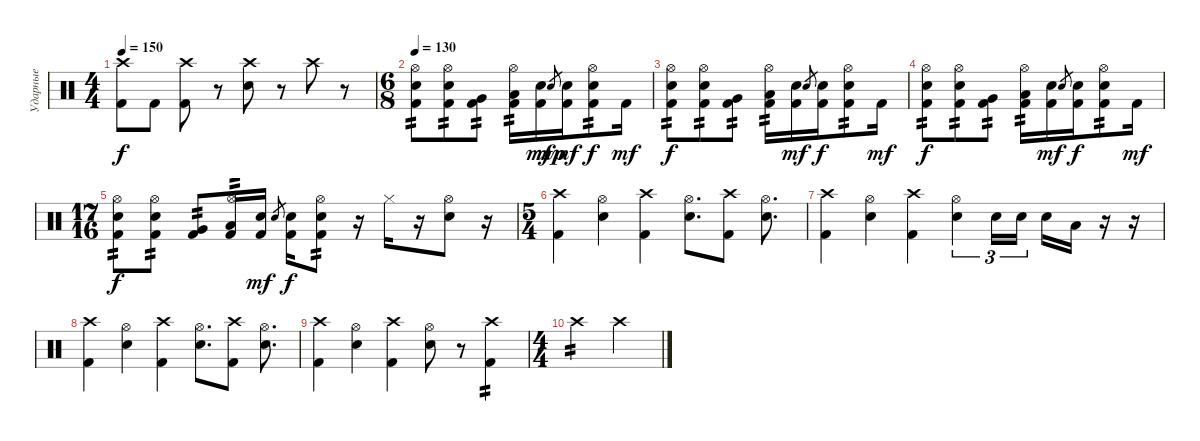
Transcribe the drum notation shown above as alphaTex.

\track ("Ударные" "Ударные") {instrument percussion}
\staff {score}
\articulation defaults
\ts (4 4)
\tempo 150
\clef neutral
\ks c
("Crash high (hit)" "Kick (hit) 2").8{dy f} "Kick (hit) 2".8 ("Crash high (hit)" "Kick (hit) 2").8 r.8 ("Crash high (hit)" "Electric Snare (hit)").8 r.8 "Crash high (hit)".8 r.8 |
\ts (6 8)
\tempo 130
("Hi-Hat (open)" "Electric Snare (hit)" "Kick (hit) 2").8{tp 2} ("Hi-Hat (open)" "Electric Snare (hit)" "Kick (hit) 2").8{tp 2} ("Very Low Tom (hit)" "Kick (hit) 2").8{tp 2} ("Hi-Hat (open)" "Low Floor Tom (hit)" "Kick (hit) 2").16{tp 2} ("Electric Snare (hit)" "Kick (hit) 2").16{dy mf} "Electric Snare (hit)".8{gr dy mp} ("Electric Snare (hit)" "Kick (hit) 2").16{dy mf} ("Hi-Hat (open)" "Electric Snare (hit)" "Kick (hit) 2").8{tp 2 dy f} "Kick (hit) 2".16{dy mf} |
("Hi-Hat (open)" "Electric Snare (hit)" "Kick (hit) 2").8{tp 2 dy f} ("Hi-Hat (open)" "Electric Snare (hit)" "Kick (hit) 2").8{tp 2} ("Very Low Tom (hit)" "Kick (hit) 2").8{tp 2} ("Hi-Hat (open)" "Low Floor Tom (hit)" "Kick (hit) 2").16{tp 2} ("Electric Snare (hit)" "Kick (hit) 2").16{dy mf} "Electric Snare (hit)".8{gr} ("Electric Snare (hit)" "Kick (hit) 2").16{dy f} ("Hi-Hat (open)" "Electric Snare (hit)" "Kick (hit) 2").8{tp 2} "Kick (hit) 2".16{dy mf} |
("Hi-Hat (open)" "Electric Snare (hit)" "Kick (hit) 2").8{tp 2 dy f} ("Hi-Hat (open)" "Electric Snare (hit)" "Kick (hit) 2").8{tp 2} ("Very Low Tom (hit)" "Kick (hit) 2").8{tp 2} ("Hi-Hat (open)" "Low Floor Tom (hit)" "Kick (hit) 2").16{tp 2} ("Electric Snare (hit)" "Kick (hit) 2").16{dy mf} "Electric Snare (hit)".8{gr} ("Electric Snare (hit)" "Kick (hit) 2").16{dy f} ("Hi-Hat (open)" "Electric Snare (hit)" "Kick (hit) 2").8{tp 2} "Kick (hit) 2".16{dy mf} |
\ts (17 16)
("Hi-Hat (open)" "Electric Snare (hit)" "Kick (hit) 2").8{tp 2 dy f} ("Hi-Hat (open)" "Electric Snare (hit)" "Kick (hit) 2").8{tp 2} ("Very Low Tom (hit)" "Kick (hit) 2").8{tp 2} ("Hi-Hat (open)" "Low Floor Tom (hit)" "Kick (hit) 2").16{tp 2} ("Electric Snare (hit)" "Kick (hit) 2").16{dy mf} "Electric Snare (hit)".8{gr} ("Electric Snare (hit)" "Kick (hit) 2").16{dy f} ("Hi-Hat (open)" "Electric Snare (hit)" "Kick (hit) 2").8{tp 2} r.16 "Hi-Hat (closed)".16 r.16 ("Hi-Hat (open)" "Electric Snare (hit)").8 r.16 |
\ts (5 4)
("Crash high (hit)" "Kick (hit) 2").4 ("Hi-Hat (open)" "Electric Snare (hit)").4 ("Crash high (hit)" "Kick (hit) 2").4 ("Hi-Hat (open)" "Electric Snare (hit)").8{d} ("Crash high (hit)" "Kick (hit) 2").8 ("Hi-Hat (open)" "Electric Snare (hit)").8{d} |
("Crash high (hit)" "Kick (hit) 2").4 ("Hi-Hat (open)" "Electric Snare (hit)").4 ("Crash high (hit)" "Kick (hit) 2").4 ("Hi-Hat (open)" "Electric Snare (hit)").4{tu (3 2)} "Electric Snare (hit)".16{tu (3 2)} "Electric Snare (hit)".16{tu (3 2)} "Electric Snare (hit)".16 "Low Floor Tom (hit)".16 r.16 r.16 |
("Crash high (hit)" "Kick (hit) 2").4 ("Hi-Hat (open)" "Electric Snare (hit)").4 ("Crash high (hit)" "Kick (hit) 2").4 ("Hi-Hat (open)" "Electric Snare (hit)").8{d} ("Crash high (hit)" "Kick (hit) 2").8 ("Hi-Hat (open)" "Electric Snare (hit)").8{d} |
("Crash high (hit)" "Kick (hit) 2").4 ("Hi-Hat (open)" "Electric Snare (hit)").4 ("Crash high (hit)" "Kick (hit) 2").4 ("Hi-Hat (open)" "Electric Snare (hit)").8 r.8{volume 0} ("Crash high (hit)" "Kick (hit) 2").4{tp 2 volume 16} |
\ts (4 4)
"Crash high (hit)".2{tp 2} "Crash high (hit)".2
